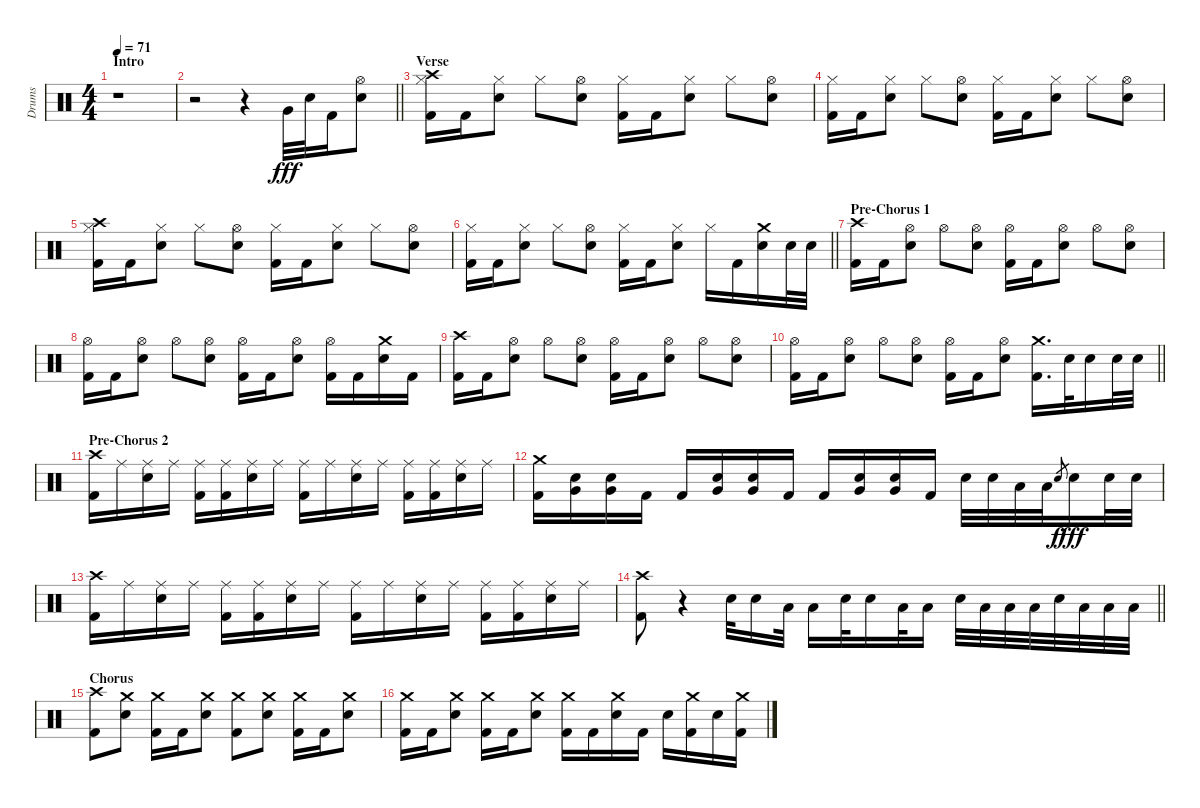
\track ("Drums" "Drums") {instrument percussion}
\staff {score}
\articulation defaults
\ts (4 4)
\section ("" "Intro")
\tempo 71
\clef neutral
\ks c
r.1{dy fff} |
\barLineRight lightlight
r.2 r.4 "Very Low Tom (hit)".32 "Snare (hit) 2".32 "Kick (hit) 2".16 ("Hi-Hat (open)" "Snare (hit) 2").8 |
\section ("" "Verse")
("Crash high (hit)" "Hi-Hat (closed)" "Kick (hit) 2").16 "Kick (hit) 2".16 ("Hi-Hat (closed)" "Snare (hit) 2").8 "Hi-Hat (closed)".8 ("Hi-Hat (open)" "Snare (hit) 2").8 ("Hi-Hat (closed)" "Kick (hit) 2").16 "Kick (hit) 2".16 ("Hi-Hat (closed)" "Snare (hit) 2").8 "Hi-Hat (closed)".8 ("Hi-Hat (open)" "Snare (hit) 2").8 |
("Hi-Hat (closed)" "Kick (hit) 2").16 "Kick (hit) 2".16 ("Hi-Hat (closed)" "Snare (hit) 2").8 "Hi-Hat (closed)".8 ("Hi-Hat (open)" "Snare (hit) 2").8 ("Hi-Hat (closed)" "Kick (hit) 2").16 "Kick (hit) 2".16 ("Hi-Hat (closed)" "Snare (hit) 2").8 "Hi-Hat (closed)".8 ("Hi-Hat (open)" "Snare (hit) 2").8 |
("Crash high (hit)" "Hi-Hat (closed)" "Kick (hit) 2").16 "Kick (hit) 2".16 ("Hi-Hat (closed)" "Snare (hit) 2").8 "Hi-Hat (closed)".8 ("Hi-Hat (open)" "Snare (hit) 2").8 ("Hi-Hat (closed)" "Kick (hit) 2").16 "Kick (hit) 2".16 ("Hi-Hat (closed)" "Snare (hit) 2").8 "Hi-Hat (closed)".8 ("Hi-Hat (open)" "Snare (hit) 2").8 |
\barLineRight lightlight
("Hi-Hat (closed)" "Kick (hit) 2").16 "Kick (hit) 2".16 ("Hi-Hat (closed)" "Snare (hit) 2").8 "Hi-Hat (closed)".8 ("Hi-Hat (open)" "Snare (hit) 2").8 ("Hi-Hat (closed)" "Kick (hit) 2").16 "Kick (hit) 2".16 ("Hi-Hat (closed)" "Snare (hit) 2").8 "Hi-Hat (closed)".16 "Kick (hit) 2".16 ("Crash medium (hit)" "Snare (hit) 2").16 "Snare (hit) 2".32 "Snare (hit) 2".32 |
\section ("" "Pre-Chorus 1")
("Crash high (hit)" "Kick (hit) 2").16 "Kick (hit) 2".16 ("Hi-Hat (open)" "Snare (hit) 2").8 "Hi-Hat (open)".8 ("Hi-Hat (open)" "Snare (hit) 2").8 ("Hi-Hat (open)" "Kick (hit) 2").16 "Kick (hit) 2".16 ("Hi-Hat (open)" "Snare (hit) 2").8 "Hi-Hat (open)".8 ("Hi-Hat (open)" "Snare (hit) 2").8 |
("Hi-Hat (open)" "Kick (hit) 2").16 "Kick (hit) 2".16 ("Hi-Hat (open)" "Snare (hit) 2").8 "Hi-Hat (open)".8 ("Hi-Hat (open)" "Snare (hit) 2").8 ("Hi-Hat (open)" "Kick (hit) 2").16 "Kick (hit) 2".16 ("Hi-Hat (open)" "Snare (hit) 2").8 ("Hi-Hat (open)" "Kick (hit) 2").16 "Kick (hit) 2".16 ("Crash medium (hit)" "Snare (hit) 2").16 "Kick (hit) 2".16 |
("Crash high (hit)" "Kick (hit) 2").16 "Kick (hit) 2".16 ("Hi-Hat (open)" "Snare (hit) 2").8 "Hi-Hat (open)".8 ("Hi-Hat (open)" "Snare (hit) 2").8 ("Hi-Hat (open)" "Kick (hit) 2").16 "Kick (hit) 2".16 ("Hi-Hat (open)" "Snare (hit) 2").8 "Hi-Hat (open)".8 ("Hi-Hat (open)" "Snare (hit) 2").8 |
\barLineRight lightlight
("Hi-Hat (open)" "Kick (hit) 2").16 "Kick (hit) 2".16 ("Hi-Hat (open)" "Snare (hit) 2").8 "Hi-Hat (open)".8 ("Hi-Hat (open)" "Snare (hit) 2").8 ("Hi-Hat (open)" "Kick (hit) 2").16 "Kick (hit) 2".16 ("Hi-Hat (open)" "Snare (hit) 2").8 ("Crash medium (hit)" "Kick (hit) 2").16{d} "Snare (hit) 2".32 "Snare (hit) 2".16 "Snare (hit) 2".32 "Snare (hit) 2".32 |
\section ("" "Pre-Chorus 2")
("Crash high (hit)" "Kick (hit) 2").16 "Ride (middle)".16 ("Ride (middle)" "Snare (hit) 2").16 "Ride (middle)".16 ("Ride (middle)" "Kick (hit) 2").16 ("Ride (middle)" "Kick (hit) 2").16 ("Ride (middle)" "Snare (hit) 2").16 "Ride (middle)".16 ("Ride (middle)" "Kick (hit) 2").16 "Ride (middle)".16 ("Ride (middle)" "Snare (hit) 2").16 "Ride (middle)".16 ("Ride (middle)" "Kick (hit) 2").16 ("Ride (middle)" "Kick (hit) 2").16 ("Ride (middle)" "Snare (hit) 2").16 "Ride (middle)".16 |
("Crash medium (hit)" "Kick (hit) 2").16 ("Snare (hit) 2" "Very Low Tom (hit)").16 ("Snare (hit) 2" "Very Low Tom (hit)").16 "Kick (hit) 2".16 "Kick (hit) 2".16 ("Snare (hit) 2" "Very Low Tom (hit)").16 ("Snare (hit) 2" "Very Low Tom (hit)").16 "Kick (hit) 2".16 "Kick (hit) 2".16 ("Snare (hit) 2" "Very Low Tom (hit)").16 ("Snare (hit) 2" "Very Low Tom (hit)").16 "Kick (hit) 2".16 "Snare (hit) 2".32 "Snare (hit) 2".32 "Low Tom (hit)".32 "Low Tom (hit)".32 "Snare (hit) 2".8{gr dy f} "Snare (hit) 2".16{dy fff} "Snare (hit) 2".32 "Snare (hit) 2".32 |
("Crash high (hit)" "Kick (hit) 2").16 "Ride (middle)".16 ("Ride (middle)" "Snare (hit) 2").16 "Ride (middle)".16 ("Ride (middle)" "Kick (hit) 2").16 ("Ride (middle)" "Kick (hit) 2").16 ("Ride (middle)" "Snare (hit) 2").16 "Ride (middle)".16 ("Ride (middle)" "Kick (hit) 2").16 "Ride (middle)".16 ("Ride (middle)" "Snare (hit) 2").16 "Ride (middle)".16 ("Ride (middle)" "Kick (hit) 2").16 ("Ride (middle)" "Kick (hit) 2").16 ("Ride (middle)" "Snare (hit) 2").16 "Ride (middle)".16 |
\barLineRight lightlight
("Crash high (hit)" "Kick (hit) 2").8 r.4{volume 0} "Snare (hit) 2".32{volume 14} "Snare (hit) 2".16 "Low Tom (hit)".32 "Low Tom (hit)".16 "Snare (hit) 2".32 "Snare (hit) 2".16 "Low Tom (hit)".32 "Low Tom (hit)".16 "Snare (hit) 2".32 "Low Tom (hit)".32 "Low Tom (hit)".32 "Low Tom (hit)".32 "Snare (hit) 2".32 "Low Tom (hit)".32 "Low Tom (hit)".32 "Low Tom (hit)".32 |
\section ("" "Chorus")
("Crash high (hit)" "Kick (hit) 2").8 ("Crash medium (hit)" "Snare (hit) 2").8 ("Crash medium (hit)" "Kick (hit) 2").16 "Kick (hit) 2".16 ("Crash medium (hit)" "Snare (hit) 2").8 ("Crash medium (hit)" "Kick (hit) 2").8 ("Crash medium (hit)" "Snare (hit) 2").8 ("Crash medium (hit)" "Kick (hit) 2").16 "Kick (hit) 2".16 ("Crash medium (hit)" "Snare (hit) 2").8 |
("Crash medium (hit)" "Kick (hit) 2").16 "Kick (hit) 2".16 ("Crash medium (hit)" "Snare (hit) 2").8 ("Crash medium (hit)" "Kick (hit) 2").16 "Kick (hit) 2".16 ("Crash medium (hit)" "Snare (hit) 2").8 ("Crash medium (hit)" "Kick (hit) 2").16 "Kick (hit) 2".16 ("Crash medium (hit)" "Snare (hit) 2").16 "Kick (hit) 2".16 "Snare (hit) 2".16 ("Crash medium (hit)" "Kick (hit) 2").16 "Snare (hit) 2".16 ("Crash medium (hit)" "Kick (hit) 2").16
